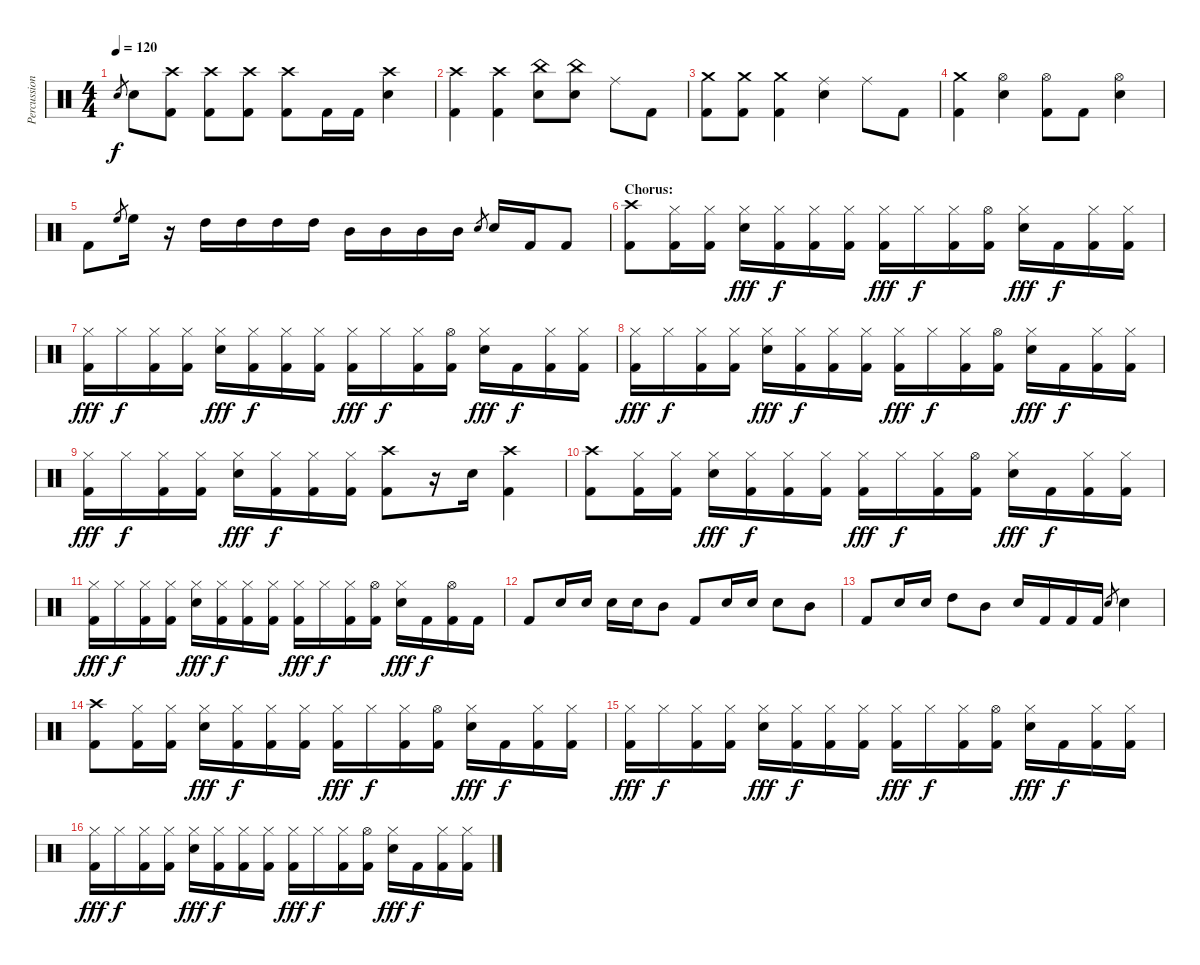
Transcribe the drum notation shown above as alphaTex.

\track ("Percussion" "Percussion") {instrument percussion}
\staff {score}
\articulation defaults
\ts (4 4)
\tempo 120
\clef neutral
\ks c "Electric Snare (hit)".8{gr dy f} "Electric Snare (hit)".8
("Crash high (hit)" "Kick (hit) 2").8 ("Crash high (hit)" "Kick (hit) 2").8 ("Crash high (hit)" "Kick (hit) 2").8 ("Crash high (hit)" "Kick (hit) 2").8 "Kick (hit) 2".16 "Kick (hit) 2".16 ("Crash high (hit)" "Electric Snare (hit)").4 |
("Crash high (hit)" "Kick (hit) 2").4 ("Crash high (hit)" "Kick (hit) 2").4 ("China (hit)" "Electric Snare (hit)").8 ("China (hit)" "Electric Snare (hit)").8 "Ride (middle)".8 "Kick (hit) 2".8 |
("Crash medium (hit)" "Kick (hit) 2").8 ("Crash medium (hit)" "Kick (hit) 2").8 ("Crash medium (hit)" "Kick (hit) 2").4 ("Ride (middle)" "Electric Snare (hit)").4 "Ride (middle)".8 "Kick (hit) 2".8 |
("Crash medium (hit)" "Kick (hit) 2").4 ("Hi-Hat (open)" "Electric Snare (hit)").4 ("Hi-Hat (open)" "Kick (hit) 2").8 "Kick (hit) 2".8 ("Hi-Hat (open)" "Electric Snare (hit)").4 |
"Kick (hit) 2".8 "High Floor Tom (hit)".8{gr} "High Floor Tom (hit)".16 r.16 "High Tom (hit)".16 "High Tom (hit)".16 "High Tom (hit)".16 "High Tom (hit)".16 "Mid Tom (hit)".16 "Mid Tom (hit)".16 "Mid Tom (hit)".16 "Mid Tom (hit)".16 "Electric Snare (hit)".8{gr} "Electric Snare (hit)".16 "Kick (hit) 2".16 "Kick (hit) 2".8 |
\section ("" "Chorus:")
("Crash high (hit)" "Kick (hit) 2").8 ("Hi-Hat (closed)" "Kick (hit) 2").16 ("Hi-Hat (closed)" "Kick (hit) 2").16 ("Hi-Hat (closed)" "Electric Snare (hit)").16{dy fff} ("Hi-Hat (closed)" "Kick (hit) 2").16{dy f} ("Hi-Hat (closed)" "Kick (hit) 2").16 ("Hi-Hat (closed)" "Kick (hit) 2").16 ("Hi-Hat (closed)" "Kick (hit) 2").16{dy fff} "Hi-Hat (closed)".16{dy f} ("Hi-Hat (closed)" "Kick (hit) 2").16 ("Hi-Hat (open)" "Kick (hit) 2").16 ("Hi-Hat (closed)" "Electric Snare (hit)").16{dy fff} "Kick (hit) 2".16{dy f} ("Hi-Hat (closed)" "Kick (hit) 2").16 ("Hi-Hat (closed)" "Kick (hit) 2").16 |
("Hi-Hat (closed)" "Kick (hit) 2").16{dy fff} "Hi-Hat (closed)".16{dy f} ("Hi-Hat (closed)" "Kick (hit) 2").16 ("Hi-Hat (closed)" "Kick (hit) 2").16 ("Hi-Hat (closed)" "Electric Snare (hit)").16{dy fff} ("Hi-Hat (closed)" "Kick (hit) 2").16{dy f} ("Hi-Hat (closed)" "Kick (hit) 2").16 ("Hi-Hat (closed)" "Kick (hit) 2").16 ("Hi-Hat (closed)" "Kick (hit) 2").16{dy fff} "Hi-Hat (closed)".16{dy f} ("Hi-Hat (closed)" "Kick (hit) 2").16 ("Hi-Hat (open)" "Kick (hit) 2").16 ("Hi-Hat (closed)" "Electric Snare (hit)").16{dy fff} "Kick (hit) 2".16{dy f} ("Hi-Hat (closed)" "Kick (hit) 2").16 ("Hi-Hat (closed)" "Kick (hit) 2").16 |
("Hi-Hat (closed)" "Kick (hit) 2").16{dy fff} "Hi-Hat (closed)".16{dy f} ("Hi-Hat (closed)" "Kick (hit) 2").16 ("Hi-Hat (closed)" "Kick (hit) 2").16 ("Hi-Hat (closed)" "Electric Snare (hit)").16{dy fff} ("Hi-Hat (closed)" "Kick (hit) 2").16{dy f} ("Hi-Hat (closed)" "Kick (hit) 2").16 ("Hi-Hat (closed)" "Kick (hit) 2").16 ("Hi-Hat (closed)" "Kick (hit) 2").16{dy fff} "Hi-Hat (closed)".16{dy f} ("Hi-Hat (closed)" "Kick (hit) 2").16 ("Hi-Hat (open)" "Kick (hit) 2").16 ("Hi-Hat (closed)" "Electric Snare (hit)").16{dy fff} "Kick (hit) 2".16{dy f} ("Hi-Hat (closed)" "Kick (hit) 2").16 ("Hi-Hat (closed)" "Kick (hit) 2").16 |
("Hi-Hat (closed)" "Kick (hit) 2").16{dy fff} "Hi-Hat (closed)".16{dy f} ("Hi-Hat (closed)" "Kick (hit) 2").16 ("Hi-Hat (closed)" "Kick (hit) 2").16 ("Hi-Hat (closed)" "Electric Snare (hit)").16{dy fff} ("Hi-Hat (closed)" "Kick (hit) 2").16{dy f} ("Hi-Hat (closed)" "Kick (hit) 2").16 ("Hi-Hat (closed)" "Kick (hit) 2").16 ("Crash high (hit)" "Kick (hit) 2").8 r.16 "Electric Snare (hit)".16 ("Crash high (hit)" "Kick (hit) 2").4 |
("Crash high (hit)" "Kick (hit) 2").8 ("Hi-Hat (closed)" "Kick (hit) 2").16 ("Hi-Hat (closed)" "Kick (hit) 2").16 ("Hi-Hat (closed)" "Electric Snare (hit)").16{dy fff} ("Hi-Hat (closed)" "Kick (hit) 2").16{dy f} ("Hi-Hat (closed)" "Kick (hit) 2").16 ("Hi-Hat (closed)" "Kick (hit) 2").16 ("Hi-Hat (closed)" "Kick (hit) 2").16{dy fff} "Hi-Hat (closed)".16{dy f} ("Hi-Hat (closed)" "Kick (hit) 2").16 ("Hi-Hat (open)" "Kick (hit) 2").16 ("Hi-Hat (closed)" "Electric Snare (hit)").16{dy fff} "Kick (hit) 2".16{dy f} ("Hi-Hat (closed)" "Kick (hit) 2").16 ("Hi-Hat (closed)" "Kick (hit) 2").16 |
("Hi-Hat (closed)" "Kick (hit) 2").16{dy fff} "Hi-Hat (closed)".16{dy f} ("Hi-Hat (closed)" "Kick (hit) 2").16 ("Hi-Hat (closed)" "Kick (hit) 2").16 ("Hi-Hat (closed)" "Electric Snare (hit)").16{dy fff} ("Hi-Hat (closed)" "Kick (hit) 2").16{dy f} ("Hi-Hat (closed)" "Kick (hit) 2").16 ("Hi-Hat (closed)" "Kick (hit) 2").16 ("Hi-Hat (closed)" "Kick (hit) 2").16{dy fff} "Hi-Hat (closed)".16{dy f} ("Hi-Hat (closed)" "Kick (hit) 2").16 ("Hi-Hat (open)" "Kick (hit) 2").16 ("Hi-Hat (closed)" "Electric Snare (hit)").16{dy fff} "Kick (hit) 2".16{dy f} ("Hi-Hat (open)" "Kick (hit) 2").16 "Kick (hit) 2".16 |
"Kick (hit) 2".8 "Electric Snare (hit)".16 "Electric Snare (hit)".16 "Electric Snare (hit)".16 "Electric Snare (hit)".16 "Mid Tom (hit)".8 "Kick (hit) 2".8 "Electric Snare (hit)".16 "Electric Snare (hit)".16 "Electric Snare (hit)".8 "Mid Tom (hit)".8 |
"Kick (hit) 2".8 "Electric Snare (hit)".16 "Electric Snare (hit)".16 "High Tom (hit)".8 "Mid Tom (hit)".8 "Electric Snare (hit)".16 "Kick (hit) 2".16 "Kick (hit) 2".16 "Kick (hit) 2".16 "Electric Snare (hit)".8{gr} "Electric Snare (hit)".4 |
("Crash high (hit)" "Kick (hit) 2").8 ("Hi-Hat (closed)" "Kick (hit) 2").16 ("Hi-Hat (closed)" "Kick (hit) 2").16 ("Hi-Hat (closed)" "Electric Snare (hit)").16{dy fff} ("Hi-Hat (closed)" "Kick (hit) 2").16{dy f} ("Hi-Hat (closed)" "Kick (hit) 2").16 ("Hi-Hat (closed)" "Kick (hit) 2").16 ("Hi-Hat (closed)" "Kick (hit) 2").16{dy fff} "Hi-Hat (closed)".16{dy f} ("Hi-Hat (closed)" "Kick (hit) 2").16 ("Hi-Hat (open)" "Kick (hit) 2").16 ("Hi-Hat (closed)" "Electric Snare (hit)").16{dy fff} "Kick (hit) 2".16{dy f} ("Hi-Hat (closed)" "Kick (hit) 2").16 ("Hi-Hat (closed)" "Kick (hit) 2").16 |
("Hi-Hat (closed)" "Kick (hit) 2").16{dy fff} "Hi-Hat (closed)".16{dy f} ("Hi-Hat (closed)" "Kick (hit) 2").16 ("Hi-Hat (closed)" "Kick (hit) 2").16 ("Hi-Hat (closed)" "Electric Snare (hit)").16{dy fff} ("Hi-Hat (closed)" "Kick (hit) 2").16{dy f} ("Hi-Hat (closed)" "Kick (hit) 2").16 ("Hi-Hat (closed)" "Kick (hit) 2").16 ("Hi-Hat (closed)" "Kick (hit) 2").16{dy fff} "Hi-Hat (closed)".16{dy f} ("Hi-Hat (closed)" "Kick (hit) 2").16 ("Hi-Hat (open)" "Kick (hit) 2").16 ("Hi-Hat (closed)" "Electric Snare (hit)").16{dy fff} "Kick (hit) 2".16{dy f} ("Hi-Hat (closed)" "Kick (hit) 2").16 ("Hi-Hat (closed)" "Kick (hit) 2").16 |
("Hi-Hat (closed)" "Kick (hit) 2").16{dy fff} "Hi-Hat (closed)".16{dy f} ("Hi-Hat (closed)" "Kick (hit) 2").16 ("Hi-Hat (closed)" "Kick (hit) 2").16 ("Hi-Hat (closed)" "Electric Snare (hit)").16{dy fff} ("Hi-Hat (closed)" "Kick (hit) 2").16{dy f} ("Hi-Hat (closed)" "Kick (hit) 2").16 ("Hi-Hat (closed)" "Kick (hit) 2").16 ("Hi-Hat (closed)" "Kick (hit) 2").16{dy fff} "Hi-Hat (closed)".16{dy f} ("Hi-Hat (closed)" "Kick (hit) 2").16 ("Hi-Hat (open)" "Kick (hit) 2").16 ("Hi-Hat (closed)" "Electric Snare (hit)").16{dy fff} "Kick (hit) 2".16{dy f} ("Hi-Hat (closed)" "Kick (hit) 2").16 ("Hi-Hat (closed)" "Kick (hit) 2").16
